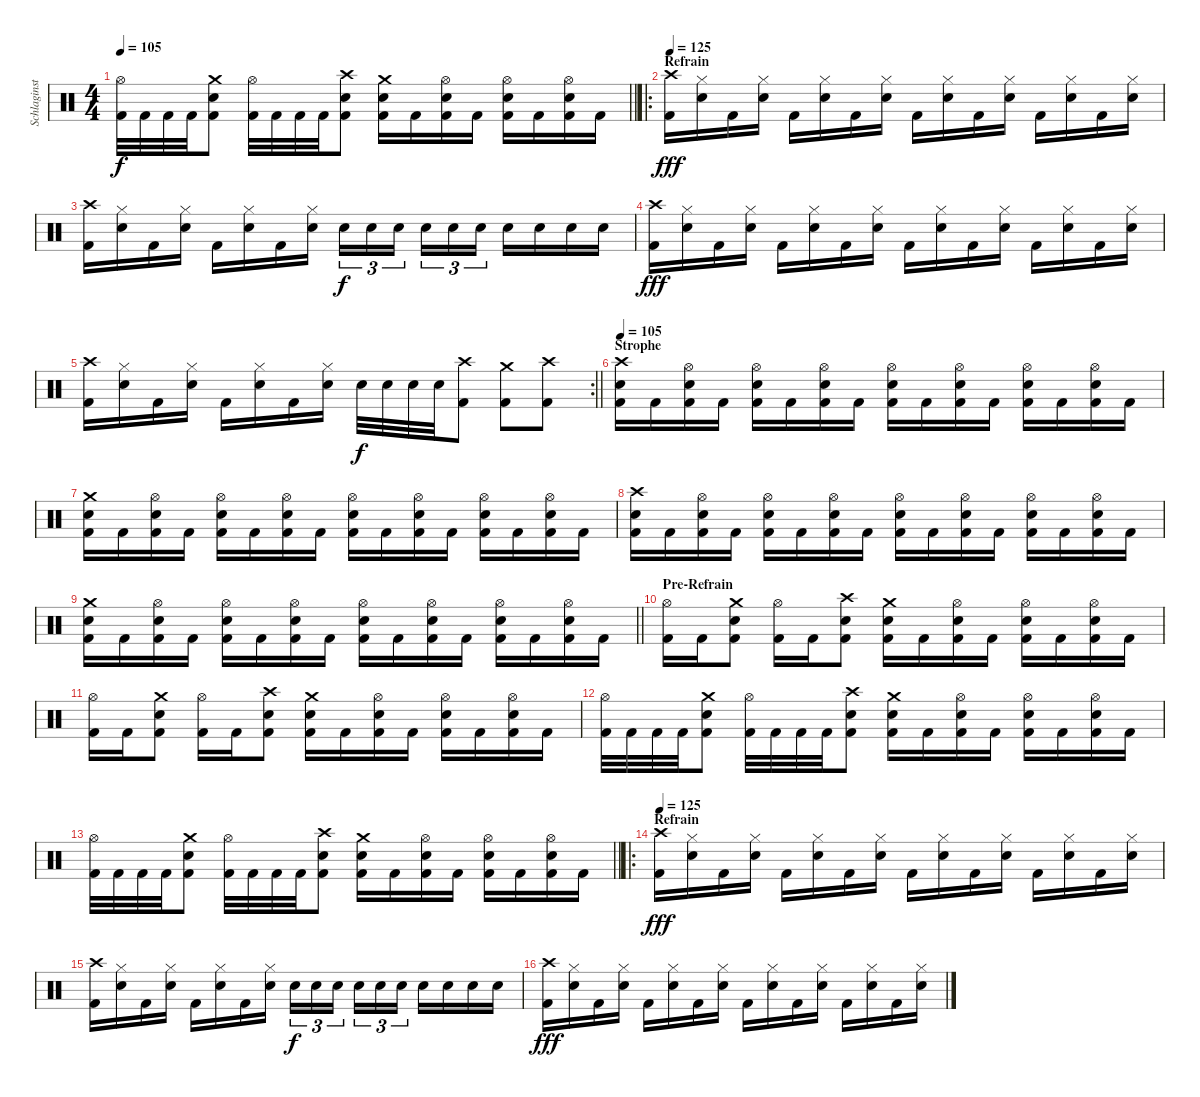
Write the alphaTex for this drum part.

\track ("Schlaginstrumente - Auswahl" "Schlaginst") {instrument percussion}
\staff {score}
\articulation defaults
\ts (4 4)
\tempo 105
\clef neutral
\barLineRight lightlight
\ks c
("Hi-Hat (open)" "Kick (hit) 2").32{dy f} "Kick (hit) 2".32 "Kick (hit) 2".32 "Kick (hit) 2".32 ("Crash medium (hit)" "Electric Snare (hit)" "Kick (hit) 2").8 ("Hi-Hat (open)" "Kick (hit) 2").32 "Kick (hit) 2".32 "Kick (hit) 2".32 "Kick (hit) 2".32 ("Crash high (hit)" "Electric Snare (hit)" "Kick (hit) 2").8 ("Crash medium (hit)" "Electric Snare (hit)" "Kick (hit) 2").16 "Kick (hit) 2".16 ("Hi-Hat (open)" "Electric Snare (hit)" "Kick (hit) 2").16 "Kick (hit) 2".16 ("Hi-Hat (open)" "Electric Snare (hit)" "Kick (hit) 2").16 "Kick (hit) 2".16 ("Hi-Hat (open)" "Electric Snare (hit)" "Kick (hit) 2").16 "Kick (hit) 2".16 |
\ro
\section ("" "Refrain")
\tempo 125
("Crash high (hit)" "Kick (hit) 2").16{dy fff} ("Hi-Hat (closed)" "Electric Snare (hit)").16 "Kick (hit) 2".16 ("Hi-Hat (closed)" "Electric Snare (hit)").16 "Kick (hit) 2".16 ("Hi-Hat (closed)" "Electric Snare (hit)").16 "Kick (hit) 2".16 ("Hi-Hat (closed)" "Electric Snare (hit)").16 "Kick (hit) 2".16 ("Hi-Hat (closed)" "Electric Snare (hit)").16 "Kick (hit) 2".16 ("Hi-Hat (closed)" "Electric Snare (hit)").16 "Kick (hit) 2".16 ("Hi-Hat (closed)" "Electric Snare (hit)").16 "Kick (hit) 2".16 ("Hi-Hat (closed)" "Electric Snare (hit)").16 |
("Crash high (hit)" "Kick (hit) 2").16 ("Hi-Hat (closed)" "Electric Snare (hit)").16 "Kick (hit) 2".16 ("Hi-Hat (closed)" "Electric Snare (hit)").16 "Kick (hit) 2".16 ("Hi-Hat (closed)" "Electric Snare (hit)").16 "Kick (hit) 2".16 ("Hi-Hat (closed)" "Electric Snare (hit)").16 "Electric Snare (hit)".16{tu (3 2) dy f} "Electric Snare (hit)".16{tu (3 2)} "Electric Snare (hit)".16{tu (3 2) beam splitsecondary} "Electric Snare (hit)".16{tu (3 2)} "Electric Snare (hit)".16{tu (3 2)} "Electric Snare (hit)".16{tu (3 2)} "Electric Snare (hit)".16 "Electric Snare (hit)".16 "Electric Snare (hit)".16 "Electric Snare (hit)".16 |
("Crash high (hit)" "Kick (hit) 2").16{dy fff} ("Hi-Hat (closed)" "Electric Snare (hit)").16 "Kick (hit) 2".16 ("Hi-Hat (closed)" "Electric Snare (hit)").16 "Kick (hit) 2".16 ("Hi-Hat (closed)" "Electric Snare (hit)").16 "Kick (hit) 2".16 ("Hi-Hat (closed)" "Electric Snare (hit)").16 "Kick (hit) 2".16 ("Hi-Hat (closed)" "Electric Snare (hit)").16 "Kick (hit) 2".16 ("Hi-Hat (closed)" "Electric Snare (hit)").16 "Kick (hit) 2".16 ("Hi-Hat (closed)" "Electric Snare (hit)").16 "Kick (hit) 2".16 ("Hi-Hat (closed)" "Electric Snare (hit)").16 |
\rc 2
\barLineRight lightlight
("Crash high (hit)" "Kick (hit) 2").16 ("Hi-Hat (closed)" "Electric Snare (hit)").16 "Kick (hit) 2".16 ("Hi-Hat (closed)" "Electric Snare (hit)").16 "Kick (hit) 2".16 ("Hi-Hat (closed)" "Electric Snare (hit)").16 "Kick (hit) 2".16 ("Hi-Hat (closed)" "Electric Snare (hit)").16 "Electric Snare (hit)".32{dy f} "Electric Snare (hit)".32 "Electric Snare (hit)".32 "Electric Snare (hit)".32 ("Crash high (hit)" "Kick (hit) 2").8 ("Crash medium (hit)" "Kick (hit) 2").8 ("Crash high (hit)" "Kick (hit) 2").8 |
\section ("" "Strophe")
\tempo 105
("Crash high (hit)" "Electric Snare (hit)" "Kick (hit) 2").16 "Kick (hit) 2".16 ("Hi-Hat (open)" "Electric Snare (hit)" "Kick (hit) 2").16 "Kick (hit) 2".16 ("Hi-Hat (open)" "Electric Snare (hit)" "Kick (hit) 2").16 "Kick (hit) 2".16 ("Hi-Hat (open)" "Electric Snare (hit)" "Kick (hit) 2").16 "Kick (hit) 2".16 ("Hi-Hat (open)" "Electric Snare (hit)" "Kick (hit) 2").16 "Kick (hit) 2".16 ("Hi-Hat (open)" "Electric Snare (hit)" "Kick (hit) 2").16 "Kick (hit) 2".16 ("Hi-Hat (open)" "Electric Snare (hit)" "Kick (hit) 2").16 "Kick (hit) 2".16 ("Hi-Hat (open)" "Electric Snare (hit)" "Kick (hit) 2").16 "Kick (hit) 2".16 |
("Crash medium (hit)" "Electric Snare (hit)" "Kick (hit) 2").16 "Kick (hit) 2".16 ("Hi-Hat (open)" "Electric Snare (hit)" "Kick (hit) 2").16 "Kick (hit) 2".16 ("Hi-Hat (open)" "Electric Snare (hit)" "Kick (hit) 2").16 "Kick (hit) 2".16 ("Hi-Hat (open)" "Electric Snare (hit)" "Kick (hit) 2").16 "Kick (hit) 2".16 ("Hi-Hat (open)" "Electric Snare (hit)" "Kick (hit) 2").16 "Kick (hit) 2".16 ("Hi-Hat (open)" "Electric Snare (hit)" "Kick (hit) 2").16 "Kick (hit) 2".16 ("Hi-Hat (open)" "Electric Snare (hit)" "Kick (hit) 2").16 "Kick (hit) 2".16 ("Hi-Hat (open)" "Electric Snare (hit)" "Kick (hit) 2").16 "Kick (hit) 2".16 |
("Crash high (hit)" "Electric Snare (hit)" "Kick (hit) 2").16 "Kick (hit) 2".16 ("Hi-Hat (open)" "Electric Snare (hit)" "Kick (hit) 2").16 "Kick (hit) 2".16 ("Hi-Hat (open)" "Electric Snare (hit)" "Kick (hit) 2").16 "Kick (hit) 2".16 ("Hi-Hat (open)" "Electric Snare (hit)" "Kick (hit) 2").16 "Kick (hit) 2".16 ("Hi-Hat (open)" "Electric Snare (hit)" "Kick (hit) 2").16 "Kick (hit) 2".16 ("Hi-Hat (open)" "Electric Snare (hit)" "Kick (hit) 2").16 "Kick (hit) 2".16 ("Hi-Hat (open)" "Electric Snare (hit)" "Kick (hit) 2").16 "Kick (hit) 2".16 ("Hi-Hat (open)" "Electric Snare (hit)" "Kick (hit) 2").16 "Kick (hit) 2".16 |
\barLineRight lightlight
("Crash medium (hit)" "Electric Snare (hit)" "Kick (hit) 2").16 "Kick (hit) 2".16 ("Hi-Hat (open)" "Electric Snare (hit)" "Kick (hit) 2").16 "Kick (hit) 2".16 ("Hi-Hat (open)" "Electric Snare (hit)" "Kick (hit) 2").16 "Kick (hit) 2".16 ("Hi-Hat (open)" "Electric Snare (hit)" "Kick (hit) 2").16 "Kick (hit) 2".16 ("Hi-Hat (open)" "Electric Snare (hit)" "Kick (hit) 2").16 "Kick (hit) 2".16 ("Hi-Hat (open)" "Electric Snare (hit)" "Kick (hit) 2").16 "Kick (hit) 2".16 ("Hi-Hat (open)" "Electric Snare (hit)" "Kick (hit) 2").16 "Kick (hit) 2".16 ("Hi-Hat (open)" "Electric Snare (hit)" "Kick (hit) 2").16 "Kick (hit) 2".16 |
\section ("" "Pre-Refrain")
("Hi-Hat (open)" "Kick (hit) 2").16 "Kick (hit) 2".16 ("Crash medium (hit)" "Electric Snare (hit)" "Kick (hit) 2").8 ("Hi-Hat (open)" "Kick (hit) 2").16 "Kick (hit) 2".16 ("Crash high (hit)" "Electric Snare (hit)" "Kick (hit) 2").8 ("Crash medium (hit)" "Electric Snare (hit)" "Kick (hit) 2").16 "Kick (hit) 2".16 ("Hi-Hat (open)" "Electric Snare (hit)" "Kick (hit) 2").16 "Kick (hit) 2".16 ("Hi-Hat (open)" "Electric Snare (hit)" "Kick (hit) 2").16 "Kick (hit) 2".16 ("Hi-Hat (open)" "Electric Snare (hit)" "Kick (hit) 2").16 "Kick (hit) 2".16 |
("Hi-Hat (open)" "Kick (hit) 2").16 "Kick (hit) 2".16 ("Crash medium (hit)" "Electric Snare (hit)" "Kick (hit) 2").8 ("Hi-Hat (open)" "Kick (hit) 2").16 "Kick (hit) 2".16 ("Crash high (hit)" "Electric Snare (hit)" "Kick (hit) 2").8 ("Crash medium (hit)" "Electric Snare (hit)" "Kick (hit) 2").16 "Kick (hit) 2".16 ("Hi-Hat (open)" "Electric Snare (hit)" "Kick (hit) 2").16 "Kick (hit) 2".16 ("Hi-Hat (open)" "Electric Snare (hit)" "Kick (hit) 2").16 "Kick (hit) 2".16 ("Hi-Hat (open)" "Electric Snare (hit)" "Kick (hit) 2").16 "Kick (hit) 2".16 |
("Hi-Hat (open)" "Kick (hit) 2").32 "Kick (hit) 2".32 "Kick (hit) 2".32 "Kick (hit) 2".32 ("Crash medium (hit)" "Electric Snare (hit)" "Kick (hit) 2").8 ("Hi-Hat (open)" "Kick (hit) 2").32 "Kick (hit) 2".32 "Kick (hit) 2".32 "Kick (hit) 2".32 ("Crash high (hit)" "Electric Snare (hit)" "Kick (hit) 2").8 ("Crash medium (hit)" "Electric Snare (hit)" "Kick (hit) 2").16 "Kick (hit) 2".16 ("Hi-Hat (open)" "Electric Snare (hit)" "Kick (hit) 2").16 "Kick (hit) 2".16 ("Hi-Hat (open)" "Electric Snare (hit)" "Kick (hit) 2").16 "Kick (hit) 2".16 ("Hi-Hat (open)" "Electric Snare (hit)" "Kick (hit) 2").16 "Kick (hit) 2".16 |
\barLineRight lightlight
("Hi-Hat (open)" "Kick (hit) 2").32 "Kick (hit) 2".32 "Kick (hit) 2".32 "Kick (hit) 2".32 ("Crash medium (hit)" "Electric Snare (hit)" "Kick (hit) 2").8 ("Hi-Hat (open)" "Kick (hit) 2").32 "Kick (hit) 2".32 "Kick (hit) 2".32 "Kick (hit) 2".32 ("Crash high (hit)" "Electric Snare (hit)" "Kick (hit) 2").8 ("Crash medium (hit)" "Electric Snare (hit)" "Kick (hit) 2").16 "Kick (hit) 2".16 ("Hi-Hat (open)" "Electric Snare (hit)" "Kick (hit) 2").16 "Kick (hit) 2".16 ("Hi-Hat (open)" "Electric Snare (hit)" "Kick (hit) 2").16 "Kick (hit) 2".16 ("Hi-Hat (open)" "Electric Snare (hit)" "Kick (hit) 2").16 "Kick (hit) 2".16 |
\ro
\section ("" "Refrain")
\tempo 125
("Crash high (hit)" "Kick (hit) 2").16{dy fff} ("Hi-Hat (closed)" "Electric Snare (hit)").16 "Kick (hit) 2".16 ("Hi-Hat (closed)" "Electric Snare (hit)").16 "Kick (hit) 2".16 ("Hi-Hat (closed)" "Electric Snare (hit)").16 "Kick (hit) 2".16 ("Hi-Hat (closed)" "Electric Snare (hit)").16 "Kick (hit) 2".16 ("Hi-Hat (closed)" "Electric Snare (hit)").16 "Kick (hit) 2".16 ("Hi-Hat (closed)" "Electric Snare (hit)").16 "Kick (hit) 2".16 ("Hi-Hat (closed)" "Electric Snare (hit)").16 "Kick (hit) 2".16 ("Hi-Hat (closed)" "Electric Snare (hit)").16 |
("Crash high (hit)" "Kick (hit) 2").16 ("Hi-Hat (closed)" "Electric Snare (hit)").16 "Kick (hit) 2".16 ("Hi-Hat (closed)" "Electric Snare (hit)").16 "Kick (hit) 2".16 ("Hi-Hat (closed)" "Electric Snare (hit)").16 "Kick (hit) 2".16 ("Hi-Hat (closed)" "Electric Snare (hit)").16 "Electric Snare (hit)".16{tu (3 2) dy f} "Electric Snare (hit)".16{tu (3 2)} "Electric Snare (hit)".16{tu (3 2) beam splitsecondary} "Electric Snare (hit)".16{tu (3 2)} "Electric Snare (hit)".16{tu (3 2)} "Electric Snare (hit)".16{tu (3 2)} "Electric Snare (hit)".16 "Electric Snare (hit)".16 "Electric Snare (hit)".16 "Electric Snare (hit)".16 |
("Crash high (hit)" "Kick (hit) 2").16{dy fff} ("Hi-Hat (closed)" "Electric Snare (hit)").16 "Kick (hit) 2".16 ("Hi-Hat (closed)" "Electric Snare (hit)").16 "Kick (hit) 2".16 ("Hi-Hat (closed)" "Electric Snare (hit)").16 "Kick (hit) 2".16 ("Hi-Hat (closed)" "Electric Snare (hit)").16 "Kick (hit) 2".16 ("Hi-Hat (closed)" "Electric Snare (hit)").16 "Kick (hit) 2".16 ("Hi-Hat (closed)" "Electric Snare (hit)").16 "Kick (hit) 2".16 ("Hi-Hat (closed)" "Electric Snare (hit)").16 "Kick (hit) 2".16 ("Hi-Hat (closed)" "Electric Snare (hit)").16
